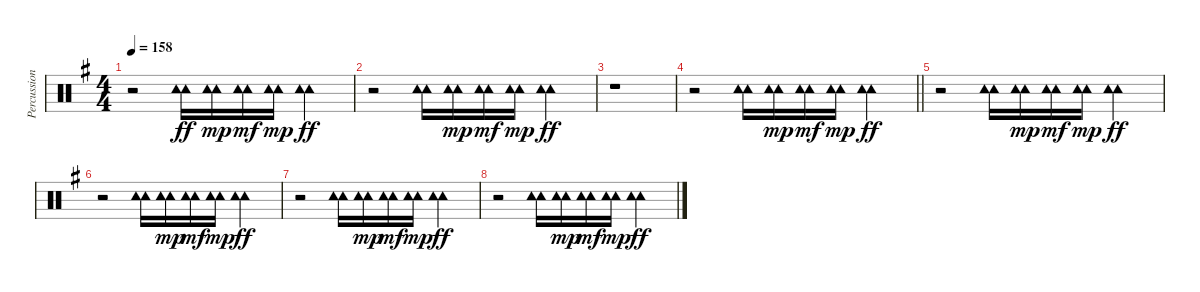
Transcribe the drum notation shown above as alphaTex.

\track ("Percussion" "Percussion") {instrument percussion}
\staff {score}
\articulation defaults
\ts (4 4)
\tempo 158
\clef neutral
\ks g
r.2{dy ff} ("Tambourine (hit)" "Tambourine (hit)").16 ("Tambourine (hit)" "Tambourine (hit)").16{dy mp} ("Tambourine (hit)" "Tambourine (hit)").16{dy mf} ("Tambourine (hit)" "Tambourine (hit)").16{dy mp} ("Tambourine (hit)" "Tambourine (hit)").4{dy ff} |
r.2 ("Tambourine (hit)" "Tambourine (hit)").16 ("Tambourine (hit)" "Tambourine (hit)").16{dy mp} ("Tambourine (hit)" "Tambourine (hit)").16{dy mf} ("Tambourine (hit)" "Tambourine (hit)").16{dy mp} ("Tambourine (hit)" "Tambourine (hit)").4{dy ff} |
r.1 |
\barLineRight lightlight
r.2 ("Tambourine (hit)" "Tambourine (hit)").16 ("Tambourine (hit)" "Tambourine (hit)").16{dy mp} ("Tambourine (hit)" "Tambourine (hit)").16{dy mf} ("Tambourine (hit)" "Tambourine (hit)").16{dy mp} ("Tambourine (hit)" "Tambourine (hit)").4{dy ff} |
r.2 ("Tambourine (hit)" "Tambourine (hit)").16 ("Tambourine (hit)" "Tambourine (hit)").16{dy mp} ("Tambourine (hit)" "Tambourine (hit)").16{dy mf} ("Tambourine (hit)" "Tambourine (hit)").16{dy mp} ("Tambourine (hit)" "Tambourine (hit)").4{dy ff} |
r.2 ("Tambourine (hit)" "Tambourine (hit)").16 ("Tambourine (hit)" "Tambourine (hit)").16{dy mp} ("Tambourine (hit)" "Tambourine (hit)").16{dy mf} ("Tambourine (hit)" "Tambourine (hit)").16{dy mp} ("Tambourine (hit)" "Tambourine (hit)").4{dy ff} |
r.2 ("Tambourine (hit)" "Tambourine (hit)").16 ("Tambourine (hit)" "Tambourine (hit)").16{dy mp} ("Tambourine (hit)" "Tambourine (hit)").16{dy mf} ("Tambourine (hit)" "Tambourine (hit)").16{dy mp} ("Tambourine (hit)" "Tambourine (hit)").4{dy ff} |
r.2 ("Tambourine (hit)" "Tambourine (hit)").16 ("Tambourine (hit)" "Tambourine (hit)").16{dy mp} ("Tambourine (hit)" "Tambourine (hit)").16{dy mf} ("Tambourine (hit)" "Tambourine (hit)").16{dy mp} ("Tambourine (hit)" "Tambourine (hit)").4{dy ff}
